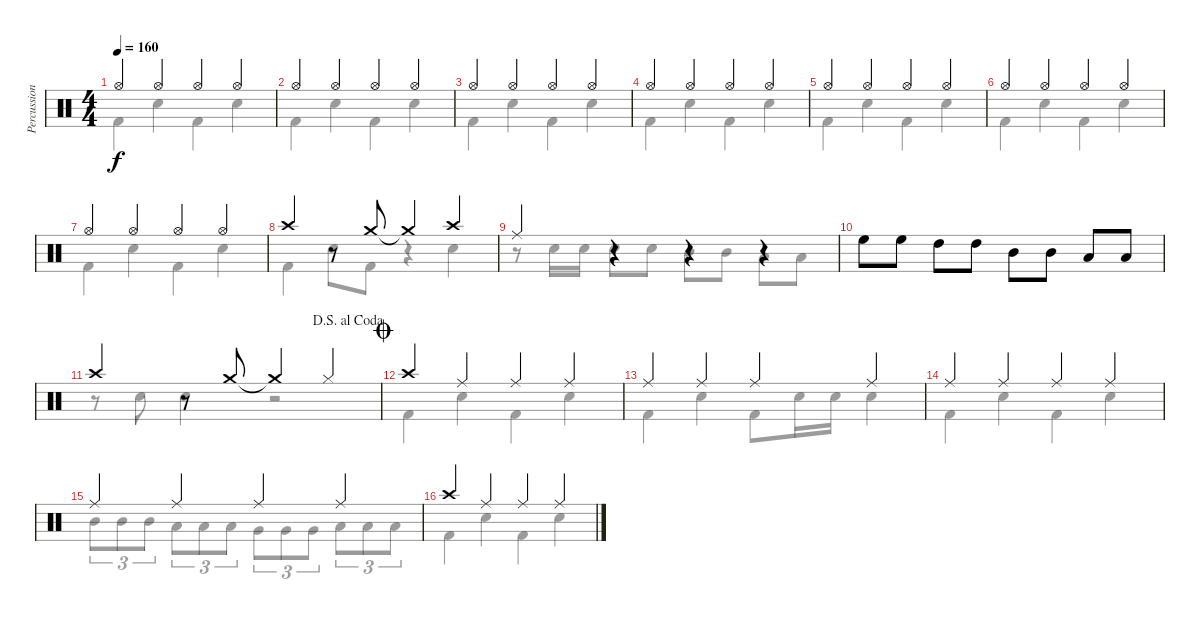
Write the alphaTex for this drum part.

\track ("Percussion" "Percussion") {instrument percussion}
\staff {score}
\articulation defaults
\voice
\ts (4 4)
\tempo 160
\clef neutral
\ks c "Hi-Hat (open)".4{dy f} "Hi-Hat (open)".4 "Hi-Hat (open)".4 "Hi-Hat (open)".4
|
"Hi-Hat (open)".4 "Hi-Hat (open)".4 "Hi-Hat (open)".4 "Hi-Hat (open)".4 |
"Hi-Hat (open)".4 "Hi-Hat (open)".4 "Hi-Hat (open)".4 "Hi-Hat (open)".4 |
"Hi-Hat (open)".4 "Hi-Hat (open)".4 "Hi-Hat (open)".4 "Hi-Hat (open)".4 |
"Hi-Hat (open)".4 "Hi-Hat (open)".4 "Hi-Hat (open)".4 "Hi-Hat (open)".4 |
"Hi-Hat (open)".4 "Hi-Hat (open)".4 "Hi-Hat (open)".4 "Hi-Hat (open)".4 |
"Hi-Hat (open)".4 "Hi-Hat (open)".4 "Hi-Hat (open)".4 "Hi-Hat (open)".4 |
"Crash high (hit)".4 r.8 "Crash medium (hit)".8 "Crash medium (hit)"{t}.4 "Crash high (hit)".4 |
"Ride (middle)".4 r.4 r.4 r.4 |
"High Floor Tom (hit)".8 "High Floor Tom (hit)".8 "High Tom (hit)".8 "High Tom (hit)".8 "Mid Tom (hit)".8 "Mid Tom (hit)".8 "Low Tom (hit)".8 "Low Tom (hit)".8 |
\jump dalsegnoalcoda "Crash high (hit)".4
r.8 "Crash medium (hit)".8 "Crash medium (hit)"{t}.4 "Hi-Hat (closed)".4 |
\jump coda "Crash high (hit)".4 "Ride (middle)".4 "Ride (middle)".4 "Ride (middle)".4
|
"Ride (middle)".4 "Ride (middle)".4 "Ride (middle)".4 "Ride (middle)".4 |
"Ride (middle)".4 "Ride (middle)".4 "Ride (middle)".4 "Ride (middle)".4 |
"Ride (middle)".4 "Ride (middle)".4 "Ride (middle)".4 "Ride (middle)".4 |
"Crash high (hit)".4 "Ride (middle)".4 "Ride (middle)".4 "Ride (middle)".4
\voice
\clef neutral
\ottava regular
\simile none
\ks c "Kick (hit) 2".4{dy f} "Snare (hit) 2".4 "Kick (hit) 2".4 "Snare (hit) 2".4
|
"Kick (hit) 2".4 "Snare (hit) 2".4 "Kick (hit) 2".4 "Snare (hit) 2".4 |
"Kick (hit) 2".4 "Snare (hit) 2".4 "Kick (hit) 2".4 "Snare (hit) 2".4 |
"Kick (hit) 2".4 "Snare (hit) 2".4 "Kick (hit) 2".4 "Snare (hit) 2".4 |
"Kick (hit) 2".4 "Snare (hit) 2".4 "Kick (hit) 2".4 "Snare (hit) 2".4 |
"Kick (hit) 2".4 "Snare (hit) 2".4 "Kick (hit) 2".4 "Snare (hit) 2".4 |
"Kick (hit) 2".4 "Snare (hit) 2".4 "Kick (hit) 2".4 "Snare (hit) 2".4 |
"Kick (hit) 2".4 "Snare (hit) 2".8 "Kick (hit) 2".8 r.4 "Snare (hit) 2".4 |
r.8 "Snare (hit) 2".16 "Snare (hit) 2".16 "Snare (hit) 2".8 "Snare (hit) 2".8 "Mid Tom (hit)".8 "Mid Tom (hit)".8 "Low Tom (hit)".8 "Low Tom (hit)".8 |
|
r.8 "Snare (hit) 2".8 "Snare (hit) 2".4 r.2 |
"Kick (hit) 2".4 "Snare (hit) 2".4 "Kick (hit) 2".4 "Snare (hit) 2".4 |
"Kick (hit) 2".4 "Snare (hit) 2".4 "Kick (hit) 2".8 "Snare (hit) 2".16 "Snare (hit) 2".16 "Snare (hit) 2".4 |
"Kick (hit) 2".4 "Snare (hit) 2".4 "Kick (hit) 2".4 "Snare (hit) 2".4 |
"Mid Tom (hit)".8{tu (3 2)} "Mid Tom (hit)".8{tu (3 2)} "Mid Tom (hit)".8{tu (3 2)} "Low Tom (hit)".8{tu (3 2)} "Low Tom (hit)".8{tu (3 2)} "Low Tom (hit)".8{tu (3 2)} "Very Low Tom (hit)".8{tu (3 2)} "Very Low Tom (hit)".8{tu (3 2)} "Very Low Tom (hit)".8{tu (3 2)} "Low Floor Tom (hit)".8{tu (3 2)} "Low Floor Tom (hit)".8{tu (3 2)} "Low Floor Tom (hit)".8{tu (3 2)} |
"Kick (hit) 2".4 "Snare (hit) 2".4 "Kick (hit) 2".4 "Snare (hit) 2".4
